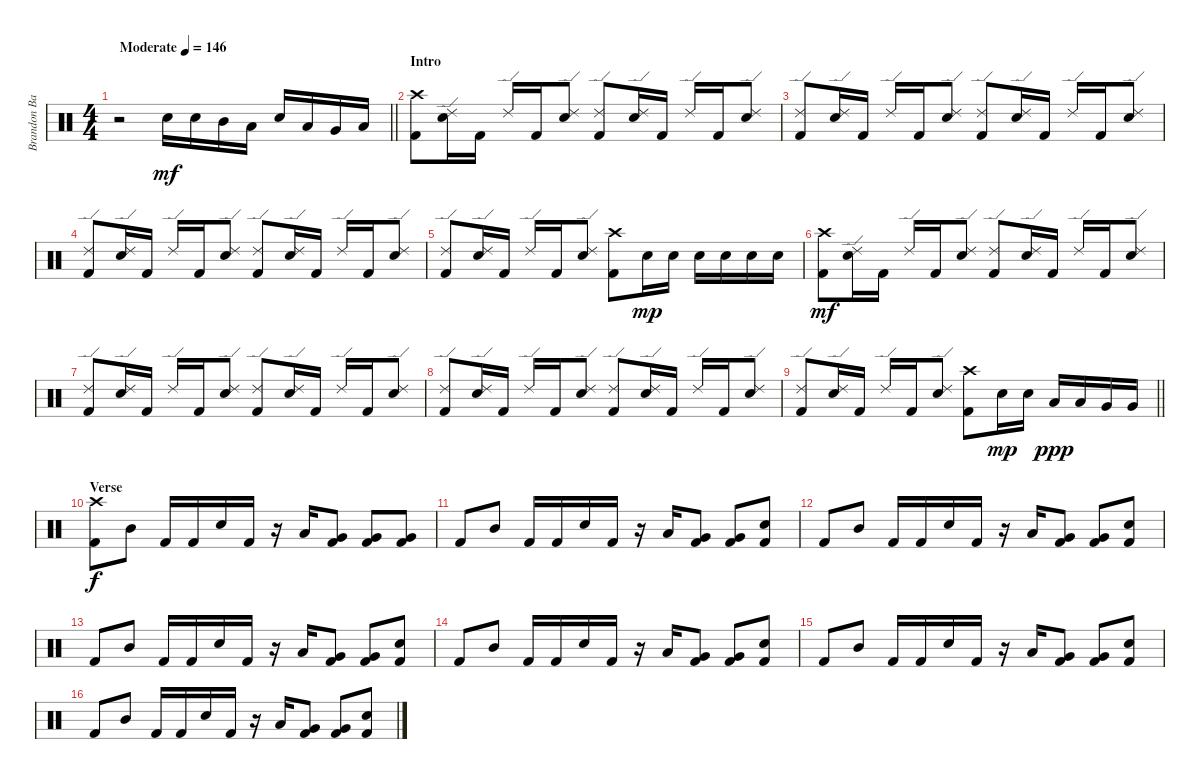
\track ("Brandon Barnes - Drums" "Brandon Ba") {instrument percussion}
\staff {score}
\articulation defaults
\ts (4 4)
\tempo (146 "Moderate")
\clef neutral
\barLineRight lightlight
\ks c
r.2{dy mf} "Snare (hit) 2".16 "Snare (hit) 2".16 "Mid Tom (hit)".16 "Low Tom (hit)".16 "Snare (hit) 2".16 "Low Tom (hit)".16 "Very Low Tom (hit)".16 "Low Floor Tom (hit)".16 |
\section ("" "Intro")
("Crash high (hit)" "Kick (hit) 2").8 ("Snare (hit) 2" "Ride (edge) 2").16 "Kick (hit) 2".16 "Ride (edge) 2".16 "Kick (hit) 2".16 ("Snare (hit) 2" "Ride (edge) 2").8 ("Ride (edge) 2" "Kick (hit) 2").8 ("Snare (hit) 2" "Ride (edge) 2").16 "Kick (hit) 2".16 "Ride (edge) 2".16 "Kick (hit) 2".16 ("Snare (hit) 2" "Ride (edge) 2").8 |
("Ride (edge) 2" "Kick (hit) 2").8 ("Snare (hit) 2" "Ride (edge) 2").16 "Kick (hit) 2".16 "Ride (edge) 2".16 "Kick (hit) 2".16 ("Snare (hit) 2" "Ride (edge) 2").8 ("Ride (edge) 2" "Kick (hit) 2").8 ("Snare (hit) 2" "Ride (edge) 2").16 "Kick (hit) 2".16 "Ride (edge) 2".16 "Kick (hit) 2".16 ("Snare (hit) 2" "Ride (edge) 2").8 |
("Ride (edge) 2" "Kick (hit) 2").8 ("Snare (hit) 2" "Ride (edge) 2").16 "Kick (hit) 2".16 "Ride (edge) 2".16 "Kick (hit) 2".16 ("Snare (hit) 2" "Ride (edge) 2").8 ("Ride (edge) 2" "Kick (hit) 2").8 ("Snare (hit) 2" "Ride (edge) 2").16 "Kick (hit) 2".16 "Ride (edge) 2".16 "Kick (hit) 2".16 ("Snare (hit) 2" "Ride (edge) 2").8 |
("Ride (edge) 2" "Kick (hit) 2").8 ("Snare (hit) 2" "Ride (edge) 2").16 "Kick (hit) 2".16 "Ride (edge) 2".16 "Kick (hit) 2".16 ("Snare (hit) 2" "Ride (edge) 2").8 ("Crash high (hit)" "Kick (hit) 2").8 "Snare (hit) 2".16{dy mp} "Snare (hit) 2".16 "Snare (hit) 2".16 "Snare (hit) 2".16 "Snare (hit) 2".16 "Snare (hit) 2".16 |
("Crash high (hit)" "Kick (hit) 2").8{dy mf} ("Snare (hit) 2" "Ride (edge) 2").16 "Kick (hit) 2".16 "Ride (edge) 2".16 "Kick (hit) 2".16 ("Snare (hit) 2" "Ride (edge) 2").8 ("Ride (edge) 2" "Kick (hit) 2").8 ("Snare (hit) 2" "Ride (edge) 2").16 "Kick (hit) 2".16 "Ride (edge) 2".16 "Kick (hit) 2".16 ("Snare (hit) 2" "Ride (edge) 2").8 |
("Ride (edge) 2" "Kick (hit) 2").8 ("Snare (hit) 2" "Ride (edge) 2").16 "Kick (hit) 2".16 "Ride (edge) 2".16 "Kick (hit) 2".16 ("Snare (hit) 2" "Ride (edge) 2").8 ("Ride (edge) 2" "Kick (hit) 2").8 ("Snare (hit) 2" "Ride (edge) 2").16 "Kick (hit) 2".16 "Ride (edge) 2".16 "Kick (hit) 2".16 ("Snare (hit) 2" "Ride (edge) 2").8 |
("Ride (edge) 2" "Kick (hit) 2").8 ("Snare (hit) 2" "Ride (edge) 2").16 "Kick (hit) 2".16 "Ride (edge) 2".16 "Kick (hit) 2".16 ("Snare (hit) 2" "Ride (edge) 2").8 ("Ride (edge) 2" "Kick (hit) 2").8 ("Snare (hit) 2" "Ride (edge) 2").16 "Kick (hit) 2".16 "Ride (edge) 2".16 "Kick (hit) 2".16 ("Snare (hit) 2" "Ride (edge) 2").8 |
\barLineRight lightlight
("Ride (edge) 2" "Kick (hit) 2").8 ("Snare (hit) 2" "Ride (edge) 2").16 "Kick (hit) 2".16 "Ride (edge) 2".16 "Kick (hit) 2".16 ("Snare (hit) 2" "Ride (edge) 2").8 ("Crash high (hit)" "Kick (hit) 2").8 "Snare (hit) 2".16{dy mp} "Snare (hit) 2".16 "Low Tom (hit)".16{dy ppp} "Low Tom (hit)".16 "Very Low Tom (hit)".16 "Very Low Tom (hit)".16 |
\section ("" "Verse")
("Crash high (hit)" "Kick (hit) 2").8{dy f} "Mid Tom (hit)".8 "Kick (hit) 2".16 "Kick (hit) 2".16 "Snare (hit) 2".16 "Kick (hit) 2".16 r.16 "Low Tom (hit)".16 ("Kick (hit) 2" "Very Low Tom (hit)").8 ("Kick (hit) 2" "Very Low Tom (hit)").8 ("Kick (hit) 2" "Very Low Tom (hit)").8 |
"Kick (hit) 2".8 "Mid Tom (hit)".8 "Kick (hit) 2".16 "Kick (hit) 2".16 "Snare (hit) 2".16 "Kick (hit) 2".16 r.16 "Low Tom (hit)".16 ("Kick (hit) 2" "Very Low Tom (hit)").8 ("Kick (hit) 2" "Very Low Tom (hit)").8 ("Kick (hit) 2" "Snare (hit) 2").8 |
"Kick (hit) 2".8 "Mid Tom (hit)".8 "Kick (hit) 2".16 "Kick (hit) 2".16 "Snare (hit) 2".16 "Kick (hit) 2".16 r.16 "Low Tom (hit)".16 ("Kick (hit) 2" "Very Low Tom (hit)").8 ("Kick (hit) 2" "Very Low Tom (hit)").8 ("Kick (hit) 2" "Snare (hit) 2").8 |
"Kick (hit) 2".8 "Mid Tom (hit)".8 "Kick (hit) 2".16 "Kick (hit) 2".16 "Snare (hit) 2".16 "Kick (hit) 2".16 r.16 "Low Tom (hit)".16 ("Kick (hit) 2" "Very Low Tom (hit)").8 ("Kick (hit) 2" "Very Low Tom (hit)").8 ("Kick (hit) 2" "Snare (hit) 2").8 |
"Kick (hit) 2".8 "Mid Tom (hit)".8 "Kick (hit) 2".16 "Kick (hit) 2".16 "Snare (hit) 2".16 "Kick (hit) 2".16 r.16 "Low Tom (hit)".16 ("Kick (hit) 2" "Very Low Tom (hit)").8 ("Kick (hit) 2" "Very Low Tom (hit)").8 ("Kick (hit) 2" "Snare (hit) 2").8 |
"Kick (hit) 2".8 "Mid Tom (hit)".8 "Kick (hit) 2".16 "Kick (hit) 2".16 "Snare (hit) 2".16 "Kick (hit) 2".16 r.16 "Low Tom (hit)".16 ("Kick (hit) 2" "Very Low Tom (hit)").8 ("Kick (hit) 2" "Very Low Tom (hit)").8 ("Kick (hit) 2" "Snare (hit) 2").8 |
"Kick (hit) 2".8 "Mid Tom (hit)".8 "Kick (hit) 2".16 "Kick (hit) 2".16 "Snare (hit) 2".16 "Kick (hit) 2".16 r.16 "Low Tom (hit)".16 ("Kick (hit) 2" "Very Low Tom (hit)").8 ("Kick (hit) 2" "Very Low Tom (hit)").8 ("Kick (hit) 2" "Snare (hit) 2").8
